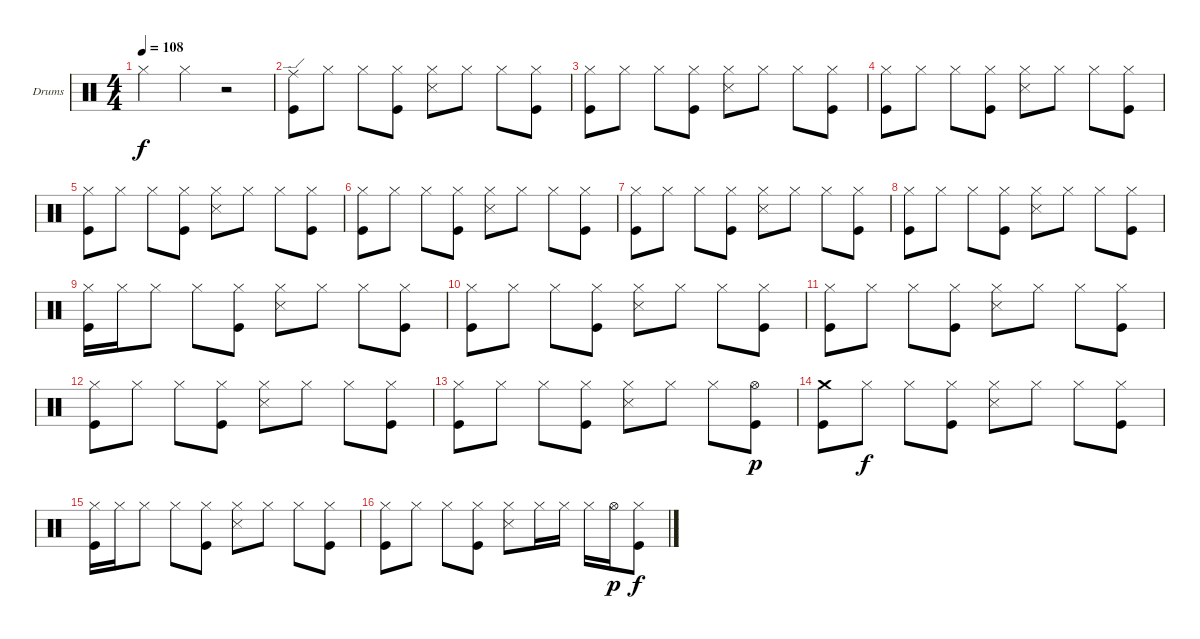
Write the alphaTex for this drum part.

\bracketExtendMode groupsimilarinstruments
\firstSystemTrackNameOrientation horizontal
\otherSystemsTrackNameOrientation horizontal
\track ("Drumkit" "Drums") {instrument percussion}
\staff {score}
\articulation defaults
\ts (4 4)
\tempo 108
\clef neutral
\ks c "Hi-Hat (closed)".4{dy f} "Hi-Hat (closed)".4
r.2 |
("Ride (edge)" "Kick (hit)").8 "Hi-Hat (closed)".8 "Hi-Hat (closed)".8 ("Hi-Hat (closed)" "Kick (hit)").8 ("Hi-Hat (closed)" "Snare (side stick) 3").8 "Hi-Hat (closed)".8 "Hi-Hat (closed)".8 ("Hi-Hat (closed)" "Kick (hit)").8 |
("Hi-Hat (closed)" "Kick (hit)").8 "Hi-Hat (closed)".8 "Hi-Hat (closed)".8 ("Hi-Hat (closed)" "Kick (hit)").8 ("Hi-Hat (closed)" "Snare (side stick) 3").8 "Hi-Hat (closed)".8 "Hi-Hat (closed)".8 ("Hi-Hat (closed)" "Kick (hit)").8 |
("Hi-Hat (closed)" "Kick (hit)").8 "Hi-Hat (closed)".8 "Hi-Hat (closed)".8 ("Hi-Hat (closed)" "Kick (hit)").8 ("Hi-Hat (closed)" "Snare (side stick) 3").8 "Hi-Hat (closed)".8 "Hi-Hat (closed)".8 ("Hi-Hat (closed)" "Kick (hit)").8 |
("Hi-Hat (closed)" "Kick (hit)").8 "Hi-Hat (closed)".8 "Hi-Hat (closed)".8 ("Hi-Hat (closed)" "Kick (hit)").8 ("Hi-Hat (closed)" "Snare (side stick) 3").8 "Hi-Hat (closed)".8 "Hi-Hat (closed)".8 ("Hi-Hat (closed)" "Kick (hit)").8 |
("Hi-Hat (closed)" "Kick (hit)").8 "Hi-Hat (closed)".8 "Hi-Hat (closed)".8 ("Hi-Hat (closed)" "Kick (hit)").8 ("Hi-Hat (closed)" "Snare (side stick) 3").8 "Hi-Hat (closed)".8 "Hi-Hat (closed)".8 ("Hi-Hat (closed)" "Kick (hit)").8 |
("Hi-Hat (closed)" "Kick (hit)").8 "Hi-Hat (closed)".8 "Hi-Hat (closed)".8 ("Hi-Hat (closed)" "Kick (hit)").8 ("Hi-Hat (closed)" "Snare (side stick) 3").8 "Hi-Hat (closed)".8 "Hi-Hat (closed)".8 ("Hi-Hat (closed)" "Kick (hit)").8 |
("Hi-Hat (closed)" "Kick (hit)").8 "Hi-Hat (closed)".8 "Hi-Hat (closed)".8 ("Hi-Hat (closed)" "Kick (hit)").8 ("Hi-Hat (closed)" "Snare (side stick) 3").8 "Hi-Hat (closed)".8 "Hi-Hat (closed)".8 ("Hi-Hat (closed)" "Kick (hit)").8 |
("Hi-Hat (closed)" "Kick (hit)").16 "Hi-Hat (closed)".16 "Hi-Hat (closed)".8 "Hi-Hat (closed)".8 ("Hi-Hat (closed)" "Kick (hit)").8 ("Hi-Hat (closed)" "Snare (side stick) 3").8 "Hi-Hat (closed)".8 "Hi-Hat (closed)".8 ("Hi-Hat (closed)" "Kick (hit)").8 |
("Hi-Hat (closed)" "Kick (hit)").8 "Hi-Hat (closed)".8 "Hi-Hat (closed)".8 ("Hi-Hat (closed)" "Kick (hit)").8 ("Hi-Hat (closed)" "Snare (side stick) 3").8 "Hi-Hat (closed)".8 "Hi-Hat (closed)".8 ("Hi-Hat (closed)" "Kick (hit)").8 |
("Hi-Hat (closed)" "Kick (hit)").8 "Hi-Hat (closed)".8 "Hi-Hat (closed)".8 ("Hi-Hat (closed)" "Kick (hit)").8 ("Hi-Hat (closed)" "Snare (side stick) 3").8 "Hi-Hat (closed)".8 "Hi-Hat (closed)".8 ("Hi-Hat (closed)" "Kick (hit)").8 |
("Hi-Hat (closed)" "Kick (hit)").8 "Hi-Hat (closed)".8 "Hi-Hat (closed)".8 ("Hi-Hat (closed)" "Kick (hit)").8 ("Hi-Hat (closed)" "Snare (side stick) 3").8 "Hi-Hat (closed)".8 "Hi-Hat (closed)".8 ("Hi-Hat (closed)" "Kick (hit)").8 |
("Hi-Hat (closed)" "Kick (hit)").8 "Hi-Hat (closed)".8 "Hi-Hat (closed)".8 ("Hi-Hat (closed)" "Kick (hit)").8 ("Hi-Hat (closed)" "Snare (side stick) 3").8 "Hi-Hat (closed)".8 "Hi-Hat (closed)".8 ("Hi-Hat (open)" "Kick (hit)").8{dy p} |
("Crash medium (hit)" "Kick (hit)").8 "Hi-Hat (closed)".8{dy f} "Hi-Hat (closed)".8 ("Hi-Hat (closed)" "Kick (hit)").8 ("Hi-Hat (closed)" "Snare (side stick) 3").8 "Hi-Hat (closed)".8 "Hi-Hat (closed)".8 ("Hi-Hat (closed)" "Kick (hit)").8 |
("Hi-Hat (closed)" "Kick (hit)").16 "Hi-Hat (closed)".16 "Hi-Hat (closed)".8 "Hi-Hat (closed)".8 ("Hi-Hat (closed)" "Kick (hit)").8 ("Hi-Hat (closed)" "Snare (side stick) 3").8 "Hi-Hat (closed)".8 "Hi-Hat (closed)".8 ("Hi-Hat (closed)" "Kick (hit)").8 |
("Hi-Hat (closed)" "Kick (hit)").8 "Hi-Hat (closed)".8 "Hi-Hat (closed)".8 ("Hi-Hat (closed)" "Kick (hit)").8 ("Hi-Hat (closed)" "Snare (side stick) 3").8 "Hi-Hat (closed)".16 "Hi-Hat (closed)".16 "Hi-Hat (closed)".16 "Hi-Hat (open)".16{dy p} ("Hi-Hat (closed)" "Kick (hit)").8{dy f}
